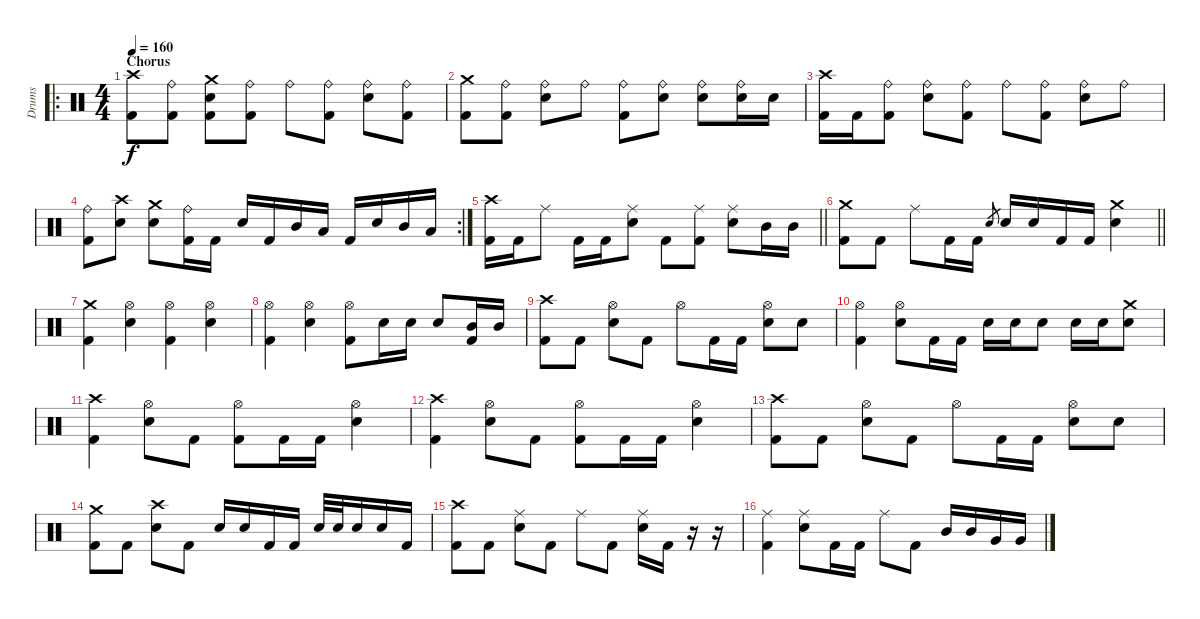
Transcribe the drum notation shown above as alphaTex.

\track ("Drums" "Drums") {instrument percussion}
\staff {score}
\articulation defaults
\ro
\ts (4 4)
\section ("" "Chorus")
\tempo 160
\clef neutral
\ks c
("Crash high (hit)" "Kick (hit) 2").8{dy f} ("Ride (bell)" "Kick (hit) 2").8 ("Crash medium (hit)" "Electric Snare (hit)" "Kick (hit) 2").8 ("Ride (bell)" "Kick (hit) 2").8 "Ride (bell)".8 ("Ride (bell)" "Kick (hit) 2").8 ("Ride (bell)" "Electric Snare (hit)").8 ("Ride (bell)" "Kick (hit) 2").8 |
("Crash medium (hit)" "Kick (hit) 2").8 ("Ride (bell)" "Kick (hit) 2").8 ("Ride (bell)" "Electric Snare (hit)").8 "Ride (bell)".8 ("Ride (bell)" "Kick (hit) 2").8 ("Ride (bell)" "Electric Snare (hit)").8 ("Ride (bell)" "Electric Snare (hit)").8 ("Ride (bell)" "Electric Snare (hit)").16 "Electric Snare (hit)".16 |
("Crash high (hit)" "Kick (hit) 2").16 "Kick (hit) 2".16 ("Ride (bell)" "Kick (hit) 2").8 ("Ride (bell)" "Electric Snare (hit)").8 ("Ride (bell)" "Kick (hit) 2").8 "Ride (bell)".8 ("Ride (bell)" "Kick (hit) 2").8 ("Ride (bell)" "Electric Snare (hit)").8 "Ride (bell)".8 |
\rc 2
("Ride (bell)" "Kick (hit) 2").8 ("Crash high (hit)" "Electric Snare (hit)").8 ("Crash medium (hit)" "Electric Snare (hit)").8 ("Ride (bell)" "Kick (hit) 2").16 "Kick (hit) 2".16 "Electric Snare (hit)".16 "Kick (hit) 2".16 "Mid Tom (hit)".16 "Low Tom (hit)".16 "Kick (hit) 2".16 "Electric Snare (hit)".16 "Mid Tom (hit)".16 "Low Tom (hit)".16 |
\barLineRight lightlight
("Crash high (hit)" "Kick (hit) 2").16 "Kick (hit) 2".16 "Ride (middle)".8 "Kick (hit) 2".16 "Kick (hit) 2".16 ("Ride (middle)" "Electric Snare (hit)").8 "Kick (hit) 2".8 ("Ride (middle)" "Kick (hit) 2").8 ("Ride (middle)" "Electric Snare (hit)").8 "Mid Tom (hit)".16 "Mid Tom (hit)".16 |
\barLineRight lightlight
("Crash medium (hit)" "Kick (hit) 2").8 "Kick (hit) 2".8 "Ride (middle)".8 "Kick (hit) 2".16 "Kick (hit) 2".16 "Electric Snare (hit)".8{gr} "Electric Snare (hit)".16 "Electric Snare (hit)".16 "Kick (hit) 2".16 "Kick (hit) 2".16 ("Crash medium (hit)" "Electric Snare (hit)").4 |
("Crash medium (hit)" "Kick (hit) 2").4 ("Hi-Hat (open)" "Electric Snare (hit)").4 ("Hi-Hat (open)" "Kick (hit) 2").4 ("Hi-Hat (open)" "Electric Snare (hit)").4 |
("Hi-Hat (open)" "Kick (hit) 2").4 ("Hi-Hat (open)" "Electric Snare (hit)").4 ("Hi-Hat (open)" "Kick (hit) 2").8 "Electric Snare (hit)".16 "Electric Snare (hit)".16 "Electric Snare (hit)".8 ("Mid Tom (hit)" "Kick (hit) 2").16 "Mid Tom (hit)".16 |
("Crash high (hit)" "Kick (hit) 2").8 "Kick (hit) 2".8 ("Hi-Hat (open)" "Electric Snare (hit)").8 "Kick (hit) 2".8 "Hi-Hat (open)".8 "Kick (hit) 2".16 "Kick (hit) 2".16 ("Hi-Hat (open)" "Electric Snare (hit)").8 "Electric Snare (hit)".8 |
("Hi-Hat (open)" "Kick (hit) 2").4 ("Hi-Hat (open)" "Electric Snare (hit)").8 "Kick (hit) 2".16 "Kick (hit) 2".16 "Electric Snare (hit)".16 "Electric Snare (hit)".16 "Electric Snare (hit)".8 "Electric Snare (hit)".16 "Electric Snare (hit)".16 ("Crash medium (hit)" "Electric Snare (hit)").8 |
("Crash high (hit)" "Kick (hit) 2").4 ("Hi-Hat (open)" "Electric Snare (hit)").8 "Kick (hit) 2".8 ("Hi-Hat (open)" "Kick (hit) 2").8 "Kick (hit) 2".16 "Kick (hit) 2".16 ("Hi-Hat (open)" "Electric Snare (hit)").4 |
("Crash high (hit)" "Kick (hit) 2").4 ("Hi-Hat (open)" "Electric Snare (hit)").8 "Kick (hit) 2".8 ("Hi-Hat (open)" "Kick (hit) 2").8 "Kick (hit) 2".16 "Kick (hit) 2".16 ("Hi-Hat (open)" "Electric Snare (hit)").4 |
("Crash high (hit)" "Kick (hit) 2").8 "Kick (hit) 2".8 ("Hi-Hat (open)" "Electric Snare (hit)").8 "Kick (hit) 2".8 "Hi-Hat (open)".8 "Kick (hit) 2".16 "Kick (hit) 2".16 ("Hi-Hat (open)" "Electric Snare (hit)").8 "Electric Snare (hit)".8 |
("Crash medium (hit)" "Kick (hit) 2").8 "Kick (hit) 2".8 ("Crash high (hit)" "Electric Snare (hit)").8 "Kick (hit) 2".8 "Electric Snare (hit)".16 "Electric Snare (hit)".16 "Kick (hit) 2".16 "Kick (hit) 2".16 "Electric Snare (hit)".32 "Electric Snare (hit)".32 "Electric Snare (hit)".16 "Electric Snare (hit)".16 "Kick (hit) 2".16 |
("Crash high (hit)" "Kick (hit) 2").8 "Kick (hit) 2".8 ("Ride (middle)" "Electric Snare (hit)").8 "Kick (hit) 2".8 "Ride (middle)".8 "Kick (hit) 2".8 ("Ride (middle)" "Electric Snare (hit)").16 "Kick (hit) 2".16 r.16 r.16 |
("Ride (middle)" "Kick (hit) 2").4 ("Ride (middle)" "Electric Snare (hit)").8 "Kick (hit) 2".16 "Kick (hit) 2".16 "Ride (middle)".8 "Kick (hit) 2".8 "Mid Tom (hit)".16 "Mid Tom (hit)".16 "Very Low Tom (hit)".16 "Very Low Tom (hit)".16
